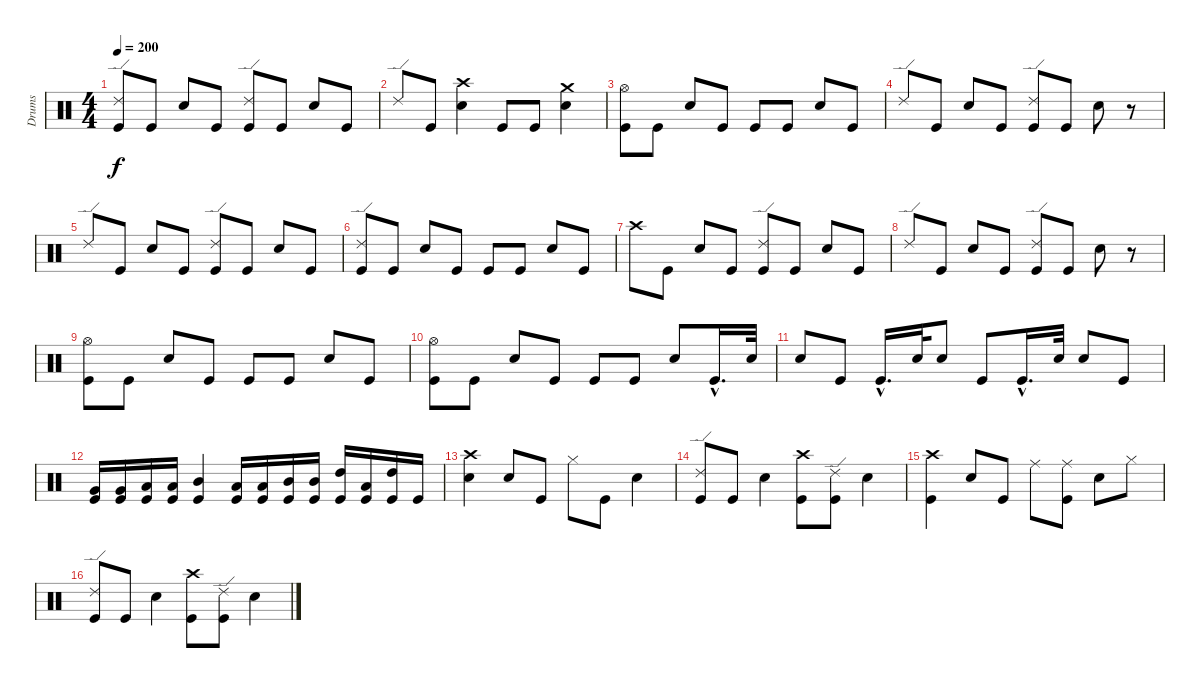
\track ("Drums" "Drums") {instrument percussion}
\staff {score}
\articulation defaults
\ts (4 4)
\tempo 200
\clef neutral
\ks c
("Ride (edge) 2" "Kick (hit)").8{dy f} "Kick (hit)".8 "Snare (hit) 2".8 "Kick (hit)".8 ("Ride (edge) 2" "Kick (hit)").8 "Kick (hit)".8 "Snare (hit) 2".8 "Kick (hit)".8 |
"Ride (edge) 2".8 "Kick (hit)".8 ("Crash high (hit)" "Snare (hit) 2").4 "Kick (hit)".8 "Kick (hit)".8 ("Crash medium (hit)" "Snare (hit) 2").4 |
("Hi-Hat (open)" "Kick (hit)").8 "Kick (hit)".8 "Snare (hit) 2".8 "Kick (hit)".8 "Kick (hit)".8 "Kick (hit)".8 "Snare (hit) 2".8 "Kick (hit)".8 |
"Ride (edge) 2".8 "Kick (hit)".8 "Snare (hit) 2".8 "Kick (hit)".8 ("Ride (edge) 2" "Kick (hit)").8 "Kick (hit)".8 "Snare (hit) 2".8 r.8 |
"Ride (edge) 2".8 "Kick (hit)".8 "Snare (hit) 2".8 "Kick (hit)".8 ("Ride (edge) 2" "Kick (hit)").8 "Kick (hit)".8 "Snare (hit) 2".8 "Kick (hit)".8 |
("Ride (edge) 2" "Kick (hit)").8 "Kick (hit)".8 "Snare (hit) 2".8 "Kick (hit)".8 "Kick (hit)".8 "Kick (hit)".8 "Snare (hit) 2".8 "Kick (hit)".8 |
"Crash high (hit)".8 "Kick (hit)".8 "Snare (hit) 2".8 "Kick (hit)".8 ("Ride (edge) 2" "Kick (hit)").8 "Kick (hit)".8 "Snare (hit) 2".8 "Kick (hit)".8 |
"Ride (edge) 2".8 "Kick (hit)".8 "Snare (hit) 2".8 "Kick (hit)".8 ("Ride (edge) 2" "Kick (hit)").8 "Kick (hit)".8 "Snare (hit) 2".8 r.8 |
("Hi-Hat (open)" "Kick (hit)").8 "Kick (hit)".8 "Snare (hit) 2".8 "Kick (hit)".8 "Kick (hit)".8 "Kick (hit)".8 "Snare (hit) 2".8 "Kick (hit)".8 |
("Hi-Hat (open)" "Kick (hit)").8 "Kick (hit)".8 "Snare (hit) 2".8 "Kick (hit)".8 "Kick (hit)".8 "Kick (hit)".8 "Snare (hit) 2".8 "Kick (hit)"{hac}.16{d} "Snare (hit) 2".32 |
"Snare (hit) 2".8 "Kick (hit)".8 "Kick (hit)"{hac}.16{d} "Snare (hit) 2".32 "Snare (hit) 2".8 "Kick (hit)".8 "Kick (hit)"{hac}.16{d} "Snare (hit) 2".32 "Snare (hit) 2".8 "Kick (hit)".8 |
("Very Low Tom (hit)" "Kick (hit)").16 ("Very Low Tom (hit)" "Kick (hit)").16 ("Low Tom (hit)" "Kick (hit)").16 ("Low Tom (hit)" "Kick (hit)").16 ("Mid Tom (hit)" "Kick (hit)").4 ("Low Tom (hit)" "Kick (hit)").16 ("Low Tom (hit)" "Kick (hit)").16 ("Mid Tom (hit)" "Kick (hit)").16 ("Mid Tom (hit)" "Kick (hit)").16 ("High Tom (hit)" "Kick (hit)").16 ("Low Tom (hit)" "Kick (hit)").16 ("High Tom (hit)" "Kick (hit)").16 "Kick (hit)".16 |
("Crash high (hit)" "Snare (hit) 2").4 "Snare (hit) 2".8 "Kick (hit)".8 "Hi-Hat (closed)".8 "Kick (hit)".8 "Snare (hit) 2".4 |
("Ride (edge) 2" "Kick (hit)").8 "Kick (hit)".8 "Snare (hit) 2".4 ("Crash high (hit)" "Kick (hit)").8 ("Ride (edge) 2" "Kick (hit)").8 "Snare (hit) 2".4 |
("Crash high (hit)" "Kick (hit)").4 "Snare (hit) 2".8 "Kick (hit)".8 "Ride (middle)".8 ("Ride (middle)" "Kick (hit)").8 "Snare (hit) 2".8 "Hi-Hat (closed)".8 |
("Ride (edge) 2" "Kick (hit)").8 "Kick (hit)".8 "Snare (hit) 2".4 ("Crash high (hit)" "Kick (hit)").8 ("Ride (edge) 2" "Kick (hit)").8 "Snare (hit) 2".4
